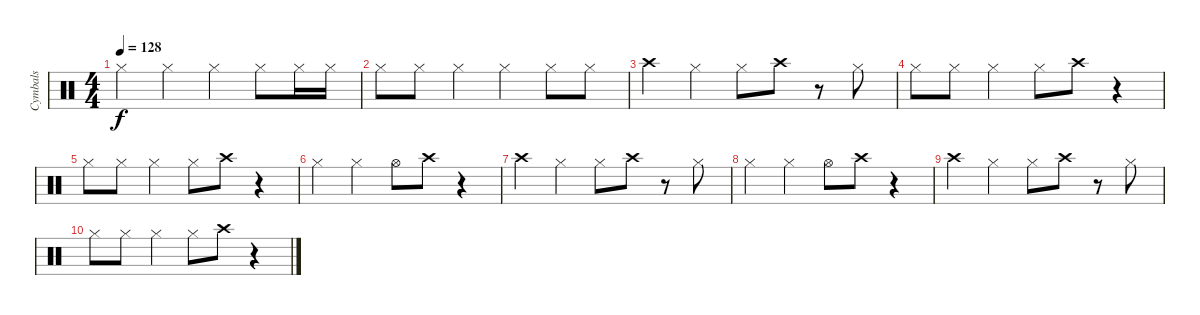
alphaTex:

\track ("Cymbals" "Cymbals") {instrument percussion}
\staff {score}
\articulation defaults
\ts (4 4)
\tempo 128
\clef neutral
\ks c "Hi-Hat (closed)".4{dy f} "Hi-Hat (closed)".4 "Hi-Hat (closed)".4 "Hi-Hat (closed)".8 "Hi-Hat (closed)".16 "Hi-Hat (closed)".16
|
"Hi-Hat (closed)".8 "Hi-Hat (closed)".8 "Hi-Hat (closed)".4 "Hi-Hat (closed)".4 "Hi-Hat (closed)".8 "Hi-Hat (closed)".8 |
"Crash high (hit)".4 "Hi-Hat (closed)".4 "Hi-Hat (closed)".8 "Crash high (hit)".8 r.8 "Hi-Hat (closed)".8 |
"Hi-Hat (closed)".8 "Hi-Hat (closed)".8 "Hi-Hat (closed)".4 "Hi-Hat (closed)".8 "Crash high (hit)".8 r.4 |
"Hi-Hat (closed)".8 "Hi-Hat (closed)".8 "Hi-Hat (closed)".4 "Hi-Hat (closed)".8 "Crash high (hit)".8 r.4 |
"Hi-Hat (closed)".4 "Hi-Hat (closed)".4 "Hi-Hat (open)".8 "Crash high (hit)".8 r.4 |
"Crash high (hit)".4 "Hi-Hat (closed)".4 "Hi-Hat (closed)".8 "Crash high (hit)".8 r.8 "Hi-Hat (closed)".8 |
"Hi-Hat (closed)".4 "Hi-Hat (closed)".4 "Hi-Hat (open)".8 "Crash high (hit)".8 r.4 |
"Crash high (hit)".4 "Hi-Hat (closed)".4 "Hi-Hat (closed)".8 "Crash high (hit)".8 r.8 "Hi-Hat (closed)".8 |
"Hi-Hat (closed)".8 "Hi-Hat (closed)".8 "Hi-Hat (closed)".4 "Hi-Hat (closed)".8 "Crash high (hit)".8 r.4
